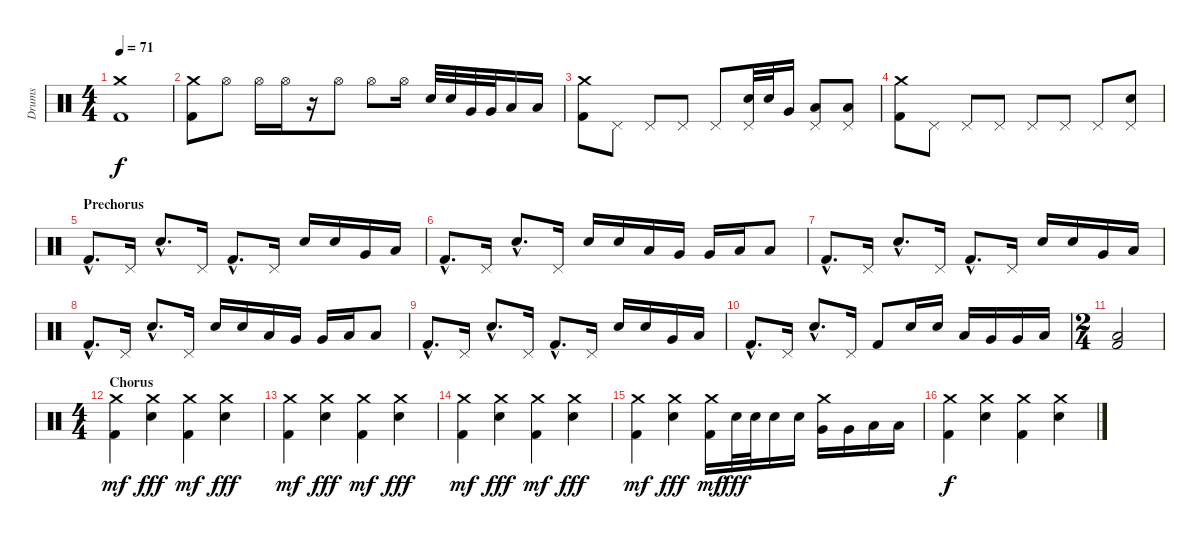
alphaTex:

\track ("Drums" "Drums") {instrument percussion}
\staff {score}
\articulation defaults
\ts (4 4)
\tempo 71
\clef neutral
\ks c
("Crash medium (hit)" "Kick (hit) 2").1{dy f} |
("Crash medium (hit)" "Kick (hit) 2").8 "Hi-Hat (open)".8 "Hi-Hat (open)".16 "Hi-Hat (open)".16 r.16 "Hi-Hat (open)".8 "Hi-Hat (open)".8 "Hi-Hat (open)".16 "Electric Snare (hit)".32 "Electric Snare (hit)".32 "Very Low Tom (hit)".32 "Very Low Tom (hit)".32 "Low Floor Tom (hit)".16 "Low Floor Tom (hit)".16 |
("Crash medium (hit)" "Kick (hit) 2").8 "Pedal Hi-Hat (hit)".8 "Pedal Hi-Hat (hit)".8 "Pedal Hi-Hat (hit)".8 "Pedal Hi-Hat (hit)".8 ("Pedal Hi-Hat (hit)" "Electric Snare (hit)").32 "Electric Snare (hit)".32 "Very Low Tom (hit)".16 ("Pedal Hi-Hat (hit)" "Low Floor Tom (hit)").8 ("Pedal Hi-Hat (hit)" "Low Floor Tom (hit)").8 |
("Crash medium (hit)" "Kick (hit) 2").8 "Pedal Hi-Hat (hit)".8 "Pedal Hi-Hat (hit)".8 "Pedal Hi-Hat (hit)".8 "Pedal Hi-Hat (hit)".8 "Pedal Hi-Hat (hit)".8 "Pedal Hi-Hat (hit)".8 ("Pedal Hi-Hat (hit)" "Electric Snare (hit)").8 |
\section ("" "Prechorus")
"Kick (hit) 2"{hac}.8{d} "Pedal Hi-Hat (hit)".16 "Electric Snare (hit)"{hac}.8{d} "Pedal Hi-Hat (hit)".16 "Kick (hit) 2"{hac}.8{d} "Pedal Hi-Hat (hit)".16 "Electric Snare (hit)".16 "Electric Snare (hit)".16 "Very Low Tom (hit)".16 "Low Floor Tom (hit)".16 |
"Kick (hit) 2"{hac}.8{d} "Pedal Hi-Hat (hit)".16 "Electric Snare (hit)"{hac}.8{d} "Pedal Hi-Hat (hit)".16 "Electric Snare (hit)".16 "Electric Snare (hit)".16 "Low Tom (hit)".16 "Very Low Tom (hit)".16 "Very Low Tom (hit)".16 "Low Floor Tom (hit)".16 "Low Floor Tom (hit)".8 |
"Kick (hit) 2"{hac}.8{d} "Pedal Hi-Hat (hit)".16 "Electric Snare (hit)"{hac}.8{d} "Pedal Hi-Hat (hit)".16 "Kick (hit) 2"{hac}.8{d} "Pedal Hi-Hat (hit)".16 "Electric Snare (hit)".16 "Electric Snare (hit)".16 "Very Low Tom (hit)".16 "Low Floor Tom (hit)".16 |
"Kick (hit) 2"{hac}.8{d} "Pedal Hi-Hat (hit)".16 "Electric Snare (hit)"{hac}.8{d} "Pedal Hi-Hat (hit)".16 "Electric Snare (hit)".16 "Electric Snare (hit)".16 "Low Tom (hit)".16 "Very Low Tom (hit)".16 "Very Low Tom (hit)".16 "Low Floor Tom (hit)".16 "Low Floor Tom (hit)".8 |
"Kick (hit) 2"{hac}.8{d} "Pedal Hi-Hat (hit)".16 "Electric Snare (hit)"{hac}.8{d} "Pedal Hi-Hat (hit)".16 "Kick (hit) 2"{hac}.8{d} "Pedal Hi-Hat (hit)".16 "Electric Snare (hit)".16 "Electric Snare (hit)".16 "Very Low Tom (hit)".16 "Low Floor Tom (hit)".16 |
"Kick (hit) 2"{hac}.8{d} "Pedal Hi-Hat (hit)".16 "Electric Snare (hit)"{hac}.8{d} "Pedal Hi-Hat (hit)".16 "Kick (hit) 2".8 "Electric Snare (hit)".16 "Electric Snare (hit)".16 "Low Tom (hit)".16 "Very Low Tom (hit)".16 "Very Low Tom (hit)".16 "Low Floor Tom (hit)".16 |
\ts (2 4)
("Low Floor Tom (hit)" "Kick (hit) 2").2 |
\ts (4 4)
\section ("" "Chorus")
("Crash medium (hit)" "Kick (hit) 2").4{dy mf} ("Crash medium (hit)" "Electric Snare (hit)").4{dy fff} ("Crash medium (hit)" "Kick (hit) 2").4{dy mf} ("Crash medium (hit)" "Electric Snare (hit)").4{dy fff} |
("Crash medium (hit)" "Kick (hit) 2").4{dy mf} ("Crash medium (hit)" "Electric Snare (hit)").4{dy fff} ("Crash medium (hit)" "Kick (hit) 2").4{dy mf} ("Crash medium (hit)" "Electric Snare (hit)").4{dy fff} |
("Crash medium (hit)" "Kick (hit) 2").4{dy mf} ("Crash medium (hit)" "Electric Snare (hit)").4{dy fff} ("Crash medium (hit)" "Kick (hit) 2").4{dy mf} ("Crash medium (hit)" "Electric Snare (hit)").4{dy fff} |
("Crash medium (hit)" "Kick (hit) 2").4{dy mf} ("Crash medium (hit)" "Electric Snare (hit)").4{dy fff} ("Crash medium (hit)" "Kick (hit) 2").16{dy mf} "Electric Snare (hit)".32{dy fff} "Electric Snare (hit)".32 "Electric Snare (hit)".16 "Electric Snare (hit)".16 ("Crash medium (hit)" "Very Low Tom (hit)").16 "Very Low Tom (hit)".16 "Low Floor Tom (hit)".16 "Low Floor Tom (hit)".16 |
("Crash medium (hit)" "Kick (hit) 2").4{dy f} ("Crash medium (hit)" "Electric Snare (hit)").4 ("Crash medium (hit)" "Kick (hit) 2").4 ("Crash medium (hit)" "Electric Snare (hit)").4
